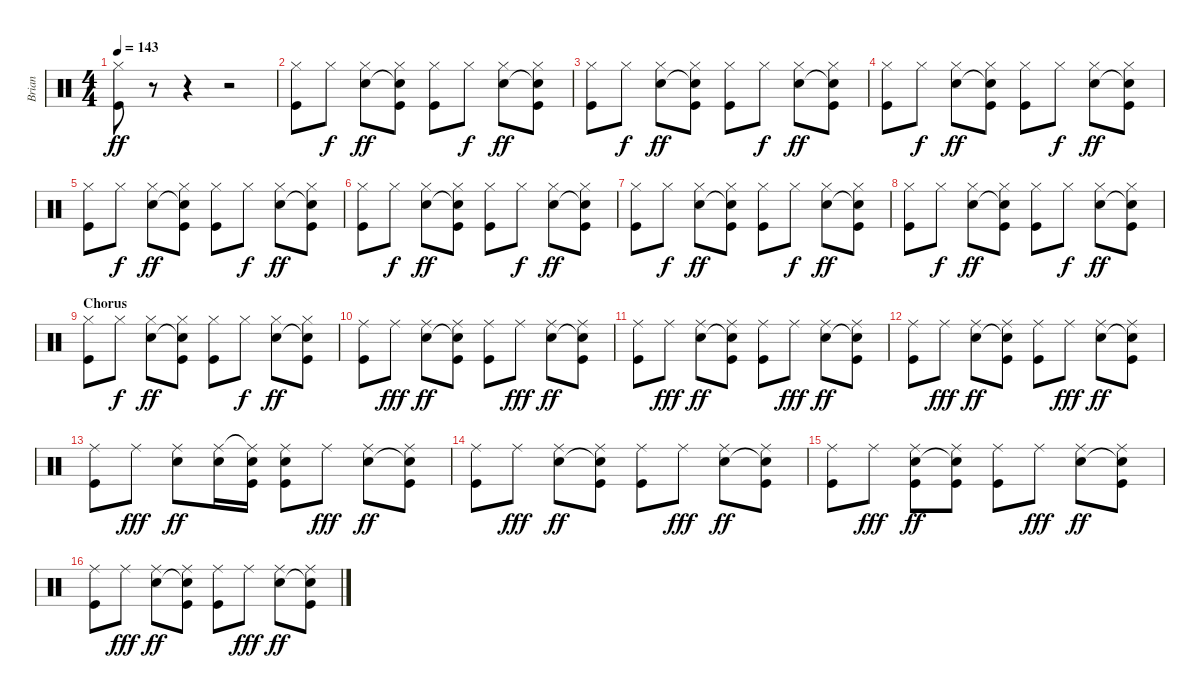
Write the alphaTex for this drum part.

\track ("Brian" "Brian") {instrument percussion}
\staff {score}
\articulation defaults
\ts (4 4)
\tempo 143
\clef neutral
\ks c
("Hi-Hat (closed)" "Kick (hit)").8{dy ff} r.8 r.4 r.2 |
("Hi-Hat (closed)" "Kick (hit)").8 "Hi-Hat (closed)".8{dy f} ("Hi-Hat (closed)" "Electric Snare (hit)").8{dy ff} ("Hi-Hat (closed)" "Snare (hit)"{t} "Kick (hit)").8 ("Hi-Hat (closed)" "Kick (hit)").8 "Hi-Hat (closed)".8{dy f} ("Hi-Hat (closed)" "Electric Snare (hit)").8{dy ff} ("Hi-Hat (closed)" "Snare (hit)"{t} "Kick (hit)").8 |
("Hi-Hat (closed)" "Kick (hit)").8 "Hi-Hat (closed)".8{dy f} ("Hi-Hat (closed)" "Electric Snare (hit)").8{dy ff} ("Hi-Hat (closed)" "Snare (hit)"{t} "Kick (hit)").8 ("Hi-Hat (closed)" "Kick (hit)").8 "Hi-Hat (closed)".8{dy f} ("Hi-Hat (closed)" "Electric Snare (hit)").8{dy ff} ("Hi-Hat (closed)" "Snare (hit)"{t} "Kick (hit)").8 |
("Hi-Hat (closed)" "Kick (hit)").8 "Hi-Hat (closed)".8{dy f} ("Hi-Hat (closed)" "Electric Snare (hit)").8{dy ff} ("Hi-Hat (closed)" "Snare (hit)"{t} "Kick (hit)").8 ("Hi-Hat (closed)" "Kick (hit)").8 "Hi-Hat (closed)".8{dy f} ("Hi-Hat (closed)" "Electric Snare (hit)").8{dy ff} ("Hi-Hat (closed)" "Snare (hit)"{t} "Kick (hit)").8 |
("Hi-Hat (closed)" "Kick (hit)").8 "Hi-Hat (closed)".8{dy f} ("Hi-Hat (closed)" "Electric Snare (hit)").8{dy ff} ("Hi-Hat (closed)" "Snare (hit)"{t} "Kick (hit)").8 ("Hi-Hat (closed)" "Kick (hit)").8 "Hi-Hat (closed)".8{dy f} ("Hi-Hat (closed)" "Electric Snare (hit)").8{dy ff} ("Hi-Hat (closed)" "Snare (hit)"{t} "Kick (hit)").8 |
("Hi-Hat (closed)" "Kick (hit)").8 "Hi-Hat (closed)".8{dy f} ("Hi-Hat (closed)" "Electric Snare (hit)").8{dy ff} ("Hi-Hat (closed)" "Snare (hit)"{t} "Kick (hit)").8 ("Hi-Hat (closed)" "Kick (hit)").8 "Hi-Hat (closed)".8{dy f} ("Hi-Hat (closed)" "Electric Snare (hit)").8{dy ff} ("Hi-Hat (closed)" "Snare (hit)"{t} "Kick (hit)").8 |
("Hi-Hat (closed)" "Kick (hit)").8 "Hi-Hat (closed)".8{dy f} ("Hi-Hat (closed)" "Electric Snare (hit)").8{dy ff} ("Hi-Hat (closed)" "Snare (hit)"{t} "Kick (hit)").8 ("Hi-Hat (closed)" "Kick (hit)").8 "Hi-Hat (closed)".8{dy f} ("Hi-Hat (closed)" "Electric Snare (hit)").8{dy ff} ("Hi-Hat (closed)" "Snare (hit)"{t} "Kick (hit)").8 |
("Hi-Hat (closed)" "Kick (hit)").8 "Hi-Hat (closed)".8{dy f} ("Hi-Hat (closed)" "Electric Snare (hit)").8{dy ff} ("Hi-Hat (closed)" "Snare (hit)"{t} "Kick (hit)").8 ("Hi-Hat (closed)" "Kick (hit)").8 "Hi-Hat (closed)".8{dy f} ("Hi-Hat (closed)" "Electric Snare (hit)").8{dy ff} ("Hi-Hat (closed)" "Snare (hit)"{t} "Kick (hit)").8 |
\section ("" "Chorus")
("Hi-Hat (closed)" "Kick (hit)").8 "Hi-Hat (closed)".8{dy f} ("Hi-Hat (closed)" "Electric Snare (hit)").8{dy ff} ("Hi-Hat (closed)" "Snare (hit)"{t} "Kick (hit)").8 ("Hi-Hat (closed)" "Kick (hit)").8 "Hi-Hat (closed)".8{dy f} ("Hi-Hat (closed)" "Electric Snare (hit)").8{dy ff} ("Hi-Hat (closed)" "Snare (hit)"{t} "Kick (hit)").8 |
("Ride (middle)" "Kick (hit)").8 "Ride (middle)".8{dy fff} ("Ride (middle)" "Electric Snare (hit)").8{dy ff} ("Ride (middle)" "Snare (hit)"{t} "Kick (hit)").8 ("Ride (middle)" "Kick (hit)").8 "Ride (middle)".8{dy fff} ("Ride (middle)" "Electric Snare (hit)").8{dy ff} ("Ride (middle)" "Snare (hit)"{t} "Kick (hit)").8 |
("Ride (middle)" "Kick (hit)").8 "Ride (middle)".8{dy fff} ("Ride (middle)" "Electric Snare (hit)").8{dy ff} ("Ride (middle)" "Snare (hit)"{t} "Kick (hit)").8 ("Ride (middle)" "Kick (hit)").8 "Ride (middle)".8{dy fff} ("Ride (middle)" "Electric Snare (hit)").8{dy ff} ("Ride (middle)" "Snare (hit)"{t} "Kick (hit)").8 |
("Ride (middle)" "Kick (hit)").8 "Ride (middle)".8{dy fff} ("Ride (middle)" "Electric Snare (hit)").8{dy ff} ("Ride (middle)" "Snare (hit)"{t} "Kick (hit)").8 ("Ride (middle)" "Kick (hit)").8 "Ride (middle)".8{dy fff} ("Ride (middle)" "Electric Snare (hit)").8{dy ff} ("Ride (middle)" "Snare (hit)"{t} "Kick (hit)").8 |
("Ride (middle)" "Kick (hit)").8 "Ride (middle)".8{dy fff} ("Ride (middle)" "Electric Snare (hit)").8{dy ff} ("Ride (middle)" "Electric Snare (hit)").16 ("Ride (middle)"{t} "Electric Snare (hit)" "Kick (hit)").16 ("Ride (middle)" "Electric Snare (hit)" "Kick (hit)").8 "Ride (middle)".8{dy fff} ("Ride (middle)" "Electric Snare (hit)").8{dy ff} ("Ride (middle)" "Snare (hit)"{t} "Kick (hit)").8 |
("Ride (middle)" "Kick (hit)").8 "Ride (middle)".8{dy fff} ("Ride (middle)" "Electric Snare (hit)").8{dy ff} ("Ride (middle)" "Snare (hit)"{t} "Kick (hit)").8 ("Ride (middle)" "Kick (hit)").8 "Ride (middle)".8{dy fff} ("Ride (middle)" "Electric Snare (hit)").8{dy ff} ("Ride (middle)" "Snare (hit)"{t} "Kick (hit)").8 |
("Ride (middle)" "Kick (hit)").8 "Ride (middle)".8{dy fff} ("Ride (middle)" "Electric Snare (hit)" "Kick (hit)").8{dy ff} ("Ride (middle)" "Snare (hit)"{t} "Kick (hit)").8 ("Ride (middle)" "Kick (hit)").8 "Ride (middle)".8{dy fff} ("Ride (middle)" "Electric Snare (hit)").8{dy ff} ("Ride (middle)" "Snare (hit)"{t} "Kick (hit)").8 |
("Ride (middle)" "Kick (hit)").8 "Ride (middle)".8{dy fff} ("Ride (middle)" "Electric Snare (hit)").8{dy ff} ("Ride (middle)" "Snare (hit)"{t} "Kick (hit)").8 ("Ride (middle)" "Kick (hit)").8 "Ride (middle)".8{dy fff} ("Ride (middle)" "Electric Snare (hit)").8{dy ff} ("Ride (middle)" "Snare (hit)"{t} "Kick (hit)").8
